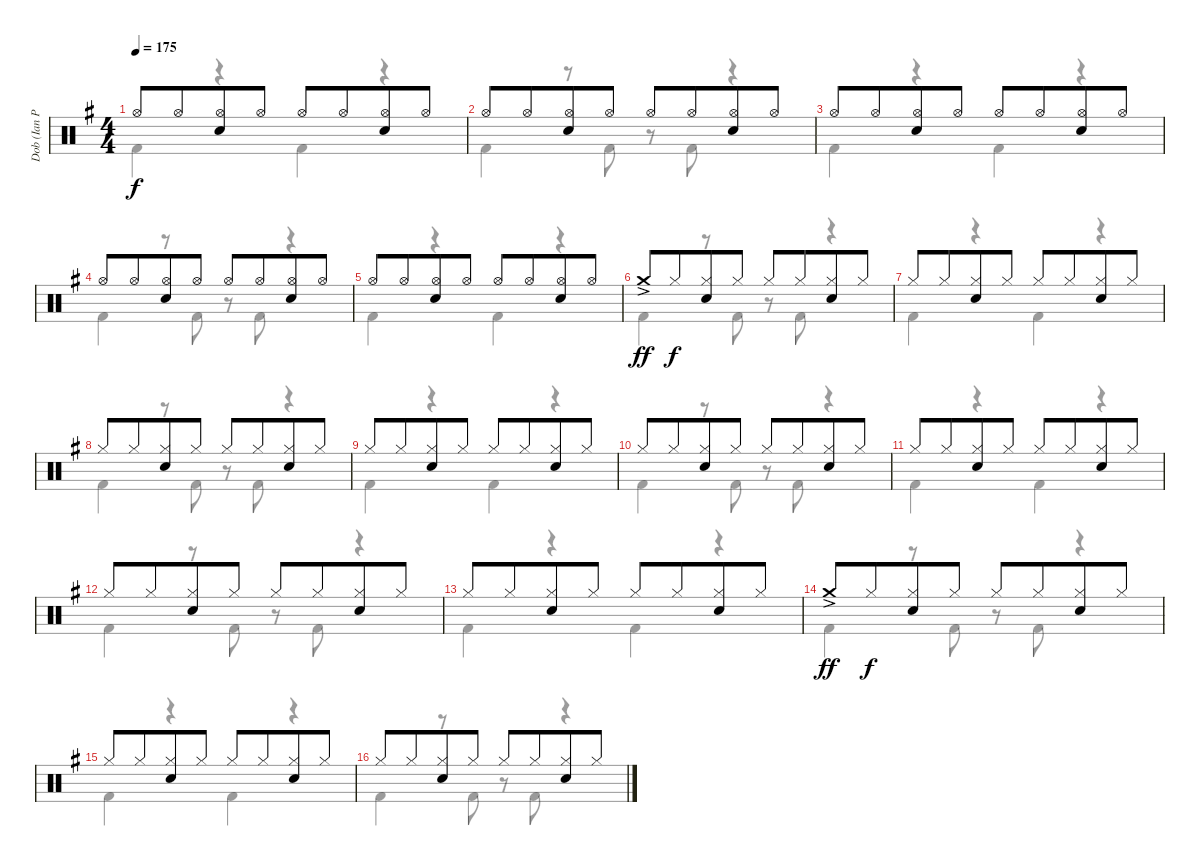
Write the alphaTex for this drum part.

\track ("Dob (Ian Paice)" "Dob (Ian P") {instrument percussion}
\staff {score}
\articulation defaults
\voice
\ts (4 4)
\tempo 175
\clef neutral
\ks g "Hi-Hat (open)".8{dy f} "Hi-Hat (open)".8{beam merge}
("Hi-Hat (open)" "Electric Snare (hit)").8 "Hi-Hat (open)".8 "Hi-Hat (open)".8 "Hi-Hat (open)".8{beam merge} ("Hi-Hat (open)" "Electric Snare (hit)").8 "Hi-Hat (open)".8 |
"Hi-Hat (open)".8 "Hi-Hat (open)".8{beam merge} ("Hi-Hat (open)" "Electric Snare (hit)").8 "Hi-Hat (open)".8 "Hi-Hat (open)".8 "Hi-Hat (open)".8{beam merge} ("Hi-Hat (open)" "Electric Snare (hit)").8 "Hi-Hat (open)".8 |
"Hi-Hat (open)".8 "Hi-Hat (open)".8{beam merge} ("Hi-Hat (open)" "Electric Snare (hit)").8 "Hi-Hat (open)".8 "Hi-Hat (open)".8 "Hi-Hat (open)".8{beam merge} ("Hi-Hat (open)" "Electric Snare (hit)").8 "Hi-Hat (open)".8 |
"Hi-Hat (open)".8 "Hi-Hat (open)".8{beam merge} ("Hi-Hat (open)" "Electric Snare (hit)").8 "Hi-Hat (open)".8 "Hi-Hat (open)".8 "Hi-Hat (open)".8{beam merge} ("Hi-Hat (open)" "Electric Snare (hit)").8 "Hi-Hat (open)".8 |
"Hi-Hat (open)".8 "Hi-Hat (open)".8{beam merge} ("Hi-Hat (open)" "Electric Snare (hit)").8 "Hi-Hat (open)".8 "Hi-Hat (open)".8 "Hi-Hat (open)".8{beam merge} ("Hi-Hat (open)" "Electric Snare (hit)").8 "Hi-Hat (open)".8 |
"Crash medium (hit)"{ac}.8{dy ff} "Hi-Hat (closed)".8{dy f beam merge} ("Hi-Hat (closed)" "Electric Snare (hit)").8 "Hi-Hat (closed)".8 "Hi-Hat (closed)".8 "Hi-Hat (closed)".8{beam merge} ("Hi-Hat (closed)" "Electric Snare (hit)").8 "Hi-Hat (closed)".8 |
"Hi-Hat (closed)".8 "Hi-Hat (closed)".8{beam merge} ("Hi-Hat (closed)" "Electric Snare (hit)").8 "Hi-Hat (closed)".8 "Hi-Hat (closed)".8 "Hi-Hat (closed)".8{beam merge} ("Hi-Hat (closed)" "Electric Snare (hit)").8 "Hi-Hat (closed)".8 |
"Hi-Hat (closed)".8 "Hi-Hat (closed)".8{beam merge} ("Hi-Hat (closed)" "Electric Snare (hit)").8 "Hi-Hat (closed)".8 "Hi-Hat (closed)".8 "Hi-Hat (closed)".8{beam merge} ("Hi-Hat (closed)" "Electric Snare (hit)").8 "Hi-Hat (closed)".8 |
"Hi-Hat (closed)".8 "Hi-Hat (closed)".8{beam merge} ("Hi-Hat (closed)" "Electric Snare (hit)").8 "Hi-Hat (closed)".8 "Hi-Hat (closed)".8 "Hi-Hat (closed)".8{beam merge} ("Hi-Hat (closed)" "Electric Snare (hit)").8 "Hi-Hat (closed)".8 |
"Hi-Hat (closed)".8 "Hi-Hat (closed)".8{beam merge} ("Hi-Hat (closed)" "Electric Snare (hit)").8 "Hi-Hat (closed)".8 "Hi-Hat (closed)".8 "Hi-Hat (closed)".8{beam merge} ("Hi-Hat (closed)" "Electric Snare (hit)").8 "Hi-Hat (closed)".8 |
"Hi-Hat (closed)".8 "Hi-Hat (closed)".8{beam merge} ("Hi-Hat (closed)" "Electric Snare (hit)").8 "Hi-Hat (closed)".8 "Hi-Hat (closed)".8 "Hi-Hat (closed)".8{beam merge} ("Hi-Hat (closed)" "Electric Snare (hit)").8 "Hi-Hat (closed)".8 |
"Hi-Hat (closed)".8 "Hi-Hat (closed)".8{beam merge} ("Hi-Hat (closed)" "Electric Snare (hit)").8 "Hi-Hat (closed)".8 "Hi-Hat (closed)".8 "Hi-Hat (closed)".8{beam merge} ("Hi-Hat (closed)" "Electric Snare (hit)").8 "Hi-Hat (closed)".8 |
"Hi-Hat (closed)".8 "Hi-Hat (closed)".8{beam merge} ("Hi-Hat (closed)" "Electric Snare (hit)").8 "Hi-Hat (closed)".8 "Hi-Hat (closed)".8 "Hi-Hat (closed)".8{beam merge} ("Hi-Hat (closed)" "Electric Snare (hit)").8 "Hi-Hat (closed)".8 |
"Crash medium (hit)"{ac}.8{dy ff} "Hi-Hat (closed)".8{dy f beam merge} ("Hi-Hat (closed)" "Electric Snare (hit)").8 "Hi-Hat (closed)".8 "Hi-Hat (closed)".8 "Hi-Hat (closed)".8{beam merge} ("Hi-Hat (closed)" "Electric Snare (hit)").8 "Hi-Hat (closed)".8 |
"Hi-Hat (closed)".8 "Hi-Hat (closed)".8{beam merge} ("Hi-Hat (closed)" "Electric Snare (hit)").8 "Hi-Hat (closed)".8 "Hi-Hat (closed)".8 "Hi-Hat (closed)".8{beam merge} ("Hi-Hat (closed)" "Electric Snare (hit)").8 "Hi-Hat (closed)".8 |
"Hi-Hat (closed)".8 "Hi-Hat (closed)".8{beam merge} ("Hi-Hat (closed)" "Electric Snare (hit)").8 "Hi-Hat (closed)".8 "Hi-Hat (closed)".8 "Hi-Hat (closed)".8{beam merge} ("Hi-Hat (closed)" "Electric Snare (hit)").8 "Hi-Hat (closed)".8
\voice
\clef neutral
\ottava regular
\simile none
\ks g "Kick (hit) 2".4{dy f}
r.4 "Kick (hit) 2".4 r.4 |
"Kick (hit) 2".4 r.8 "Kick (hit) 2".8 r.8 "Kick (hit) 2".8 r.4 |
"Kick (hit) 2".4 r.4 "Kick (hit) 2".4 r.4 |
"Kick (hit) 2".4 r.8 "Kick (hit) 2".8 r.8 "Kick (hit) 2".8 r.4 |
"Kick (hit) 2".4 r.4 "Kick (hit) 2".4 r.4 |
"Kick (hit) 2".4 r.8 "Kick (hit) 2".8 r.8 "Kick (hit) 2".8 r.4 |
"Kick (hit) 2".4 r.4 "Kick (hit) 2".4 r.4 |
"Kick (hit) 2".4 r.8 "Kick (hit) 2".8 r.8 "Kick (hit) 2".8 r.4 |
"Kick (hit) 2".4 r.4 "Kick (hit) 2".4 r.4 |
"Kick (hit) 2".4 r.8 "Kick (hit) 2".8 r.8 "Kick (hit) 2".8 r.4 |
"Kick (hit) 2".4 r.4 "Kick (hit) 2".4 r.4 |
"Kick (hit) 2".4 r.8 "Kick (hit) 2".8 r.8 "Kick (hit) 2".8 r.4 |
"Kick (hit) 2".4 r.4 "Kick (hit) 2".4 r.4 |
"Kick (hit) 2".4 r.8 "Kick (hit) 2".8 r.8 "Kick (hit) 2".8 r.4 |
"Kick (hit) 2".4 r.4 "Kick (hit) 2".4 r.4 |
"Kick (hit) 2".4 r.8 "Kick (hit) 2".8 r.8 "Kick (hit) 2".8 r.4
